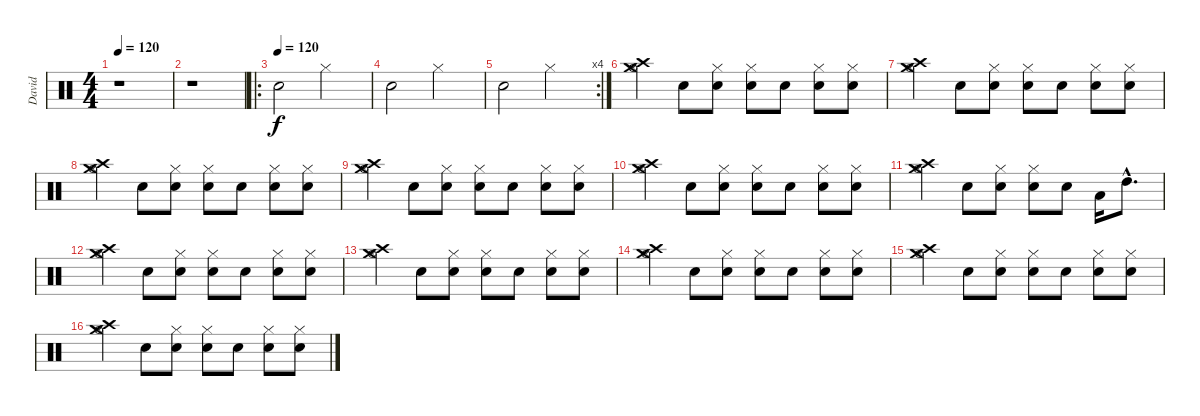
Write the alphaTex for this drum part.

\track ("David " "David ") {instrument percussion}
\staff {score}
\articulation defaults
\ts (4 4)
\tempo 120
\tempo 100
\tempo 120
\clef neutral
\ks c
r.1{dy f} |
r.1 |
\ro
\tempo (120)
"Snare (hit) 2".2 "Hi-Hat (closed)".2 |
"Snare (hit) 2".2 "Hi-Hat (closed)".2 |
\rc 4 "Snare (hit) 2".2 "Hi-Hat (closed)".2
|
("Crash high (hit)" "Crash medium (hit)" "Hi-Hat (open)").4 "Snare (hit) 2".8 ("Electric Snare (hit)" "Hi-Hat (closed)").8 ("Electric Snare (hit)" "Hi-Hat (closed)").8 "Snare (hit) 2".8 ("Electric Snare (hit)" "Hi-Hat (closed)").8 ("Electric Snare (hit)" "Hi-Hat (closed)").8 |
("Crash medium (hit)" "Hi-Hat (open)" "Crash high (hit)").4 "Snare (hit) 2".8 ("Electric Snare (hit)" "Hi-Hat (closed)").8 ("Electric Snare (hit)" "Hi-Hat (closed)").8 "Snare (hit) 2".8 ("Electric Snare (hit)" "Hi-Hat (closed)").8 ("Electric Snare (hit)" "Hi-Hat (closed)").8 |
("Crash high (hit)" "Crash medium (hit)" "Hi-Hat (open)").4 "Snare (hit) 2".8 ("Electric Snare (hit)" "Hi-Hat (closed)").8 ("Electric Snare (hit)" "Hi-Hat (closed)").8 "Snare (hit) 2".8 ("Electric Snare (hit)" "Hi-Hat (closed)").8 ("Electric Snare (hit)" "Hi-Hat (closed)").8 |
("Crash medium (hit)" "Hi-Hat (open)" "Crash high (hit)").4 "Snare (hit) 2".8 ("Electric Snare (hit)" "Hi-Hat (closed)").8 ("Electric Snare (hit)" "Hi-Hat (closed)").8 "Snare (hit) 2".8 ("Electric Snare (hit)" "Hi-Hat (closed)").8 ("Electric Snare (hit)" "Hi-Hat (closed)").8 |
("Crash high (hit)" "Crash medium (hit)" "Hi-Hat (open)").4 "Snare (hit) 2".8 ("Electric Snare (hit)" "Hi-Hat (closed)").8 ("Electric Snare (hit)" "Hi-Hat (closed)").8 "Snare (hit) 2".8 ("Electric Snare (hit)" "Hi-Hat (closed)").8 ("Electric Snare (hit)" "Hi-Hat (closed)").8 |
("Crash medium (hit)" "Hi-Hat (open)" "Crash high (hit)").4 "Snare (hit) 2".8 ("Electric Snare (hit)" "Hi-Hat (closed)").8 ("Electric Snare (hit)" "Hi-Hat (closed)").8 "Snare (hit) 2".8 "Low Tom (hit)".16 "High Tom (hit)"{hac}.8{d} |
("Crash high (hit)" "Crash medium (hit)" "Hi-Hat (open)").4 "Snare (hit) 2".8 ("Electric Snare (hit)" "Hi-Hat (closed)").8 ("Electric Snare (hit)" "Hi-Hat (closed)").8 "Snare (hit) 2".8 ("Electric Snare (hit)" "Hi-Hat (closed)").8 ("Electric Snare (hit)" "Hi-Hat (closed)").8 |
("Crash medium (hit)" "Hi-Hat (open)" "Crash high (hit)").4 "Snare (hit) 2".8 ("Electric Snare (hit)" "Hi-Hat (closed)").8 ("Electric Snare (hit)" "Hi-Hat (closed)").8 "Snare (hit) 2".8 ("Electric Snare (hit)" "Hi-Hat (closed)").8 ("Electric Snare (hit)" "Hi-Hat (closed)").8 |
("Crash high (hit)" "Crash medium (hit)" "Hi-Hat (open)").4 "Snare (hit) 2".8 ("Electric Snare (hit)" "Hi-Hat (closed)").8 ("Electric Snare (hit)" "Hi-Hat (closed)").8 "Snare (hit) 2".8 ("Electric Snare (hit)" "Hi-Hat (closed)").8 ("Electric Snare (hit)" "Hi-Hat (closed)").8 |
("Crash medium (hit)" "Hi-Hat (open)" "Crash high (hit)").4 "Snare (hit) 2".8 ("Electric Snare (hit)" "Hi-Hat (closed)").8 ("Electric Snare (hit)" "Hi-Hat (closed)").8 "Snare (hit) 2".8 ("Electric Snare (hit)" "Hi-Hat (closed)").8 ("Electric Snare (hit)" "Hi-Hat (closed)").8 |
("Crash high (hit)" "Crash medium (hit)" "Hi-Hat (open)").4 "Snare (hit) 2".8 ("Electric Snare (hit)" "Hi-Hat (closed)").8 ("Electric Snare (hit)" "Hi-Hat (closed)").8 "Snare (hit) 2".8 ("Electric Snare (hit)" "Hi-Hat (closed)").8 ("Electric Snare (hit)" "Hi-Hat (closed)").8
